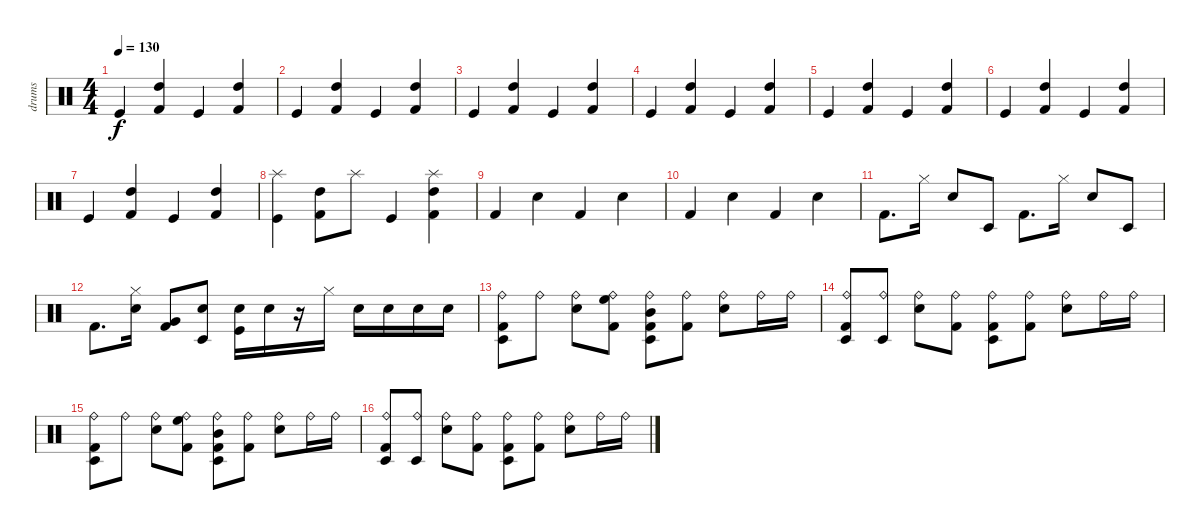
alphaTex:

\track ("drums" "drums") {instrument percussion}
\staff {score}
\articulation defaults
\ts (4 4)
\tempo 130
\clef neutral
\ks c "Kick (hit)".4{dy f}
("High Tom (hit)" "Kick (hit) 2").4 "Kick (hit)".4 ("High Tom (hit)" "Kick (hit) 2").4 |
"Kick (hit)".4 ("Kick (hit) 2" "High Tom (hit)").4 "Kick (hit)".4 ("Kick (hit) 2" "High Tom (hit)").4 |
"Kick (hit)".4 ("Kick (hit) 2" "High Tom (hit)").4 "Kick (hit)".4 ("Kick (hit) 2" "High Tom (hit)").4 |
"Kick (hit)".4 ("Kick (hit) 2" "High Tom (hit)").4 "Kick (hit)".4 ("High Tom (hit)" "Kick (hit) 2").4 |
"Kick (hit)".4 ("Kick (hit) 2" "High Tom (hit)").4 "Kick (hit)".4 ("High Tom (hit)" "Kick (hit) 2").4 |
"Kick (hit)".4 ("Kick (hit) 2" "High Tom (hit)").4 "Kick (hit)".4 ("High Tom (hit)" "Kick (hit) 2").4 |
"Kick (hit)".4 ("High Tom (hit)" "Kick (hit) 2").4 "Kick (hit)".4 ("High Tom (hit)" "Kick (hit) 2").4 |
("Splash (hit)" "Kick (hit)").4 ("Kick (hit) 2" "High Tom (hit)").8 "Splash (hit)".8 "Kick (hit)".4 ("Splash (hit)" "Kick (hit) 2" "High Tom (hit)").4 |
"Kick (hit) 2".4 "Snare (hit) 2".4 "Kick (hit) 2".4 "Snare (hit) 2".4 |
"Kick (hit) 2".4 "Snare (hit) 2".4 "Kick (hit) 2".4 "Snare (hit) 2".4 |
"Kick (hit) 2".8{d} "Hi-Hat (closed)".16 "Snare (hit) 2".8 "Timbale low (hit)".8 "Kick (hit) 2".8{d} "Hi-Hat (closed)".16 "Snare (hit) 2".8 "Timbale low (hit)".8 |
"Kick (hit) 2".8{d} ("Hi-Hat (closed)" "Electric Snare (hit)").16 ("Very Low Tom (hit)" "Kick (hit) 2").8 ("Electric Snare (hit)" "Timbale low (hit)").8 ("Kick (hit)" "Electric Snare (hit)").16 "Electric Snare (hit)".16 r.16 "Hi-Hat (closed)".16 "Electric Snare (hit)".16 "Electric Snare (hit)".16 "Electric Snare (hit)".16 "Electric Snare (hit)".16 |
("Kick (hit) 2" "Ride (bell)" "Timbale low (hit)").8 "Ride (bell)".8 ("Ride (bell)" "Electric Snare (hit)").8 ("High Floor Tom (hit)" "Ride (bell)" "Kick (hit) 2").8 ("Mid Tom (hit)" "Ride (bell)" "Timbale low (hit)" "Kick (hit) 2").8 ("Kick (hit) 2" "Ride (bell)").8 ("Ride (bell)" "Electric Snare (hit)").8 "Ride (bell)".16 "Ride (bell)".16 |
("Timbale low (hit)" "Ride (bell)" "Kick (hit) 2").8 ("Timbale low (hit)" "Ride (bell)").8 ("Electric Snare (hit)" "Ride (bell)").8 ("Ride (bell)" "Kick (hit) 2").8 ("Timbale low (hit)" "Ride (bell)" "Kick (hit) 2").8 ("Kick (hit) 2" "Ride (bell)").8 ("Ride (bell)" "Electric Snare (hit)").8 "Ride (bell)".16 "Ride (bell)".16 |
("Timbale low (hit)" "Ride (bell)" "Kick (hit) 2").8 "Ride (bell)".8 ("Ride (bell)" "Electric Snare (hit)").8 ("High Floor Tom (hit)" "Ride (bell)" "Kick (hit) 2").8 ("Timbale low (hit)" "Mid Tom (hit)" "Ride (bell)" "Kick (hit) 2").8 ("Ride (bell)" "Kick (hit) 2").8 ("Electric Snare (hit)" "Ride (bell)").8 "Ride (bell)".16 "Ride (bell)".16 |
("Kick (hit) 2" "Timbale low (hit)" "Ride (bell)").8 ("Timbale low (hit)" "Ride (bell)").8 ("Electric Snare (hit)" "Ride (bell)").8 ("Kick (hit) 2" "Ride (bell)").8 ("Timbale low (hit)" "Kick (hit) 2" "Ride (bell)").8 ("Kick (hit) 2" "Ride (bell)").8 ("Electric Snare (hit)" "Ride (bell)").8 "Ride (bell)".16 "Ride (bell)".16
